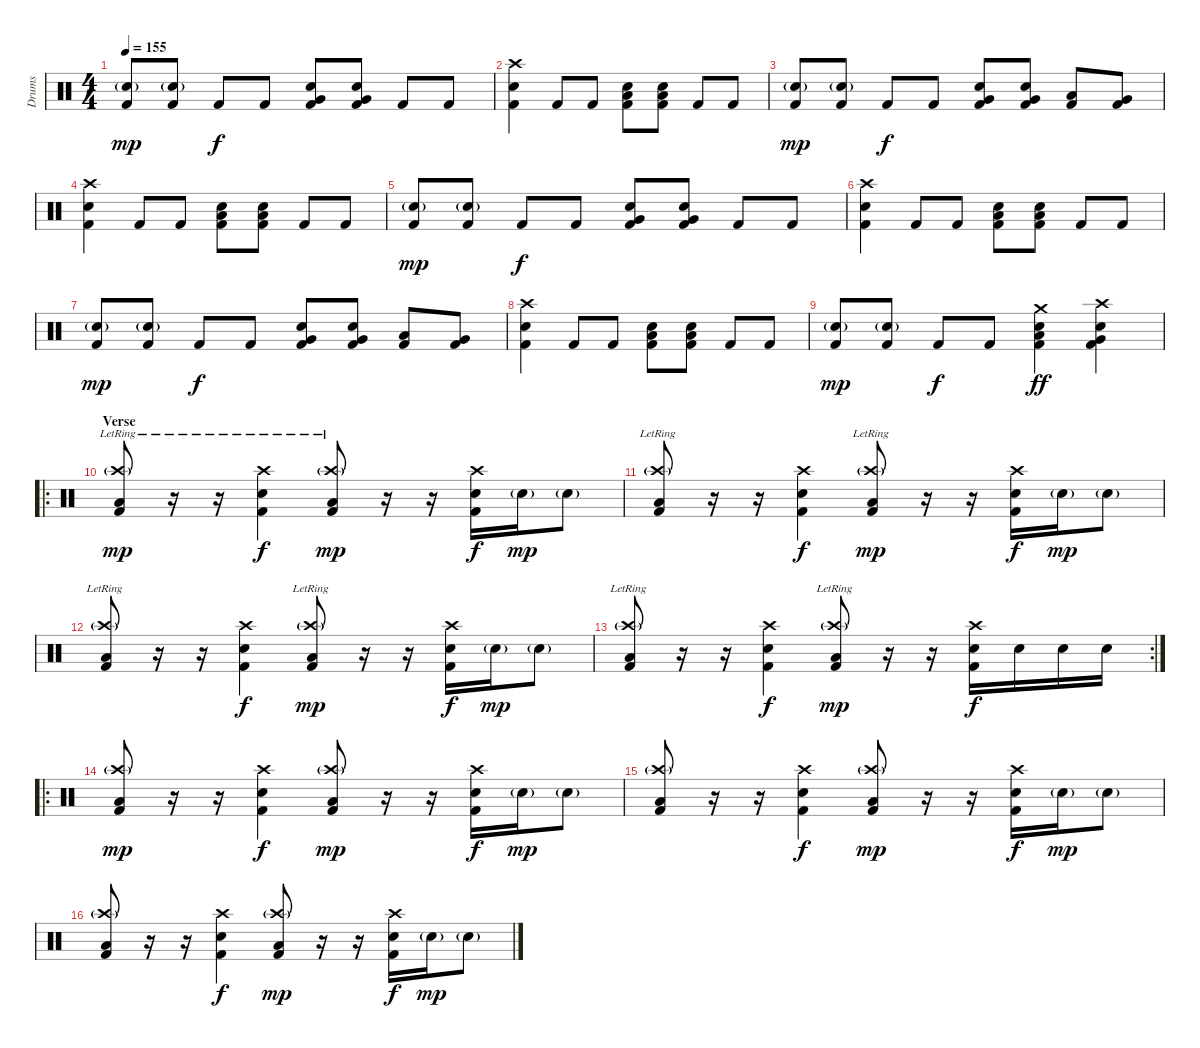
\track ("Drums" "Drums") {instrument percussion}
\staff {score}
\articulation defaults
\ts (4 4)
\tempo 155
\clef neutral
\ks c
("Electric Snare (hit)"{g} "Kick (hit) 2").8{dy mp} ("Electric Snare (hit)"{g} "Kick (hit) 2").8 "Kick (hit) 2".8{dy f} "Kick (hit) 2".8 ("Very Low Tom (hit)" "Electric Snare (hit)" "Kick (hit) 2").8 ("Very Low Tom (hit)" "Electric Snare (hit)" "Kick (hit) 2").8 "Kick (hit) 2".8 "Kick (hit) 2".8 |
("Crash high (hit)" "Electric Snare (hit)" "Kick (hit) 2").4 "Kick (hit) 2".8 "Kick (hit) 2".8 ("Low Tom (hit)" "Electric Snare (hit)" "Kick (hit) 2").8 ("Low Tom (hit)" "Electric Snare (hit)" "Kick (hit) 2").8 "Kick (hit) 2".8 "Kick (hit) 2".8 |
("Electric Snare (hit)"{g} "Kick (hit) 2").8{dy mp} ("Electric Snare (hit)"{g} "Kick (hit) 2").8 "Kick (hit) 2".8{dy f} "Kick (hit) 2".8 ("Very Low Tom (hit)" "Electric Snare (hit)" "Kick (hit) 2").8 ("Very Low Tom (hit)" "Electric Snare (hit)" "Kick (hit) 2").8 ("Low Tom (hit)" "Kick (hit) 2").8 ("Very Low Tom (hit)" "Kick (hit) 2").8 |
("Crash high (hit)" "Electric Snare (hit)" "Kick (hit) 2").4 "Kick (hit) 2".8 "Kick (hit) 2".8 ("Low Tom (hit)" "Electric Snare (hit)" "Kick (hit) 2").8 ("Low Tom (hit)" "Electric Snare (hit)" "Kick (hit) 2").8 "Kick (hit) 2".8 "Kick (hit) 2".8 |
("Electric Snare (hit)"{g} "Kick (hit) 2").8{dy mp} ("Electric Snare (hit)"{g} "Kick (hit) 2").8 "Kick (hit) 2".8{dy f} "Kick (hit) 2".8 ("Very Low Tom (hit)" "Electric Snare (hit)" "Kick (hit) 2").8 ("Very Low Tom (hit)" "Electric Snare (hit)" "Kick (hit) 2").8 "Kick (hit) 2".8 "Kick (hit) 2".8 |
("Crash high (hit)" "Electric Snare (hit)" "Kick (hit) 2").4 "Kick (hit) 2".8 "Kick (hit) 2".8 ("Low Tom (hit)" "Electric Snare (hit)" "Kick (hit) 2").8 ("Low Tom (hit)" "Electric Snare (hit)" "Kick (hit) 2").8 "Kick (hit) 2".8 "Kick (hit) 2".8 |
("Electric Snare (hit)"{g} "Kick (hit) 2").8{dy mp} ("Electric Snare (hit)"{g} "Kick (hit) 2").8 "Kick (hit) 2".8{dy f} "Kick (hit) 2".8 ("Very Low Tom (hit)" "Electric Snare (hit)" "Kick (hit) 2").8 ("Very Low Tom (hit)" "Electric Snare (hit)" "Kick (hit) 2").8 ("Low Tom (hit)" "Kick (hit) 2").8 ("Very Low Tom (hit)" "Kick (hit) 2").8 |
("Crash high (hit)" "Electric Snare (hit)" "Kick (hit) 2").4 "Kick (hit) 2".8 "Kick (hit) 2".8 ("Low Tom (hit)" "Electric Snare (hit)" "Kick (hit) 2").8 ("Low Tom (hit)" "Electric Snare (hit)" "Kick (hit) 2").8 "Kick (hit) 2".8 "Kick (hit) 2".8 |
("Electric Snare (hit)"{g} "Kick (hit) 2").8{dy mp} ("Electric Snare (hit)"{g} "Kick (hit) 2").8 "Kick (hit) 2".8{dy f} "Kick (hit) 2".8 ("Crash medium (hit)" "Low Tom (hit)" "Electric Snare (hit)" "Kick (hit) 2").4{dy ff} ("Crash high (hit)" "Very Low Tom (hit)" "Electric Snare (hit)" "Kick (hit) 2").4 |
\ro
\section ("" "Verse")
("Crash high (hit)"{g} "Low Tom (hit)"{lr} "Kick (hit) 2"{lr}).8{dy mp} r.16 r.16 ("Crash high (hit)" "Electric Snare (hit)"{lr} "Kick (hit) 2"{lr}).4{dy f} ("Crash high (hit)"{g} "Low Tom (hit)"{lr} "Kick (hit) 2"{lr}).8{dy mp} r.16 r.16 ("Crash high (hit)" "Electric Snare (hit)" "Kick (hit) 2").16{dy f} "Electric Snare (hit)"{g}.16{dy mp} "Electric Snare (hit)"{g}.8 |
("Crash high (hit)"{g} "Low Tom (hit)"{lr} "Kick (hit) 2").8 r.16 r.16 ("Crash high (hit)" "Electric Snare (hit)" "Kick (hit) 2").4{dy f} ("Crash high (hit)"{g} "Low Tom (hit)"{lr} "Kick (hit) 2").8{dy mp} r.16 r.16 ("Crash high (hit)" "Electric Snare (hit)" "Kick (hit) 2").16{dy f} "Electric Snare (hit)"{g}.16{dy mp} "Electric Snare (hit)"{g}.8 |
("Crash high (hit)"{g} "Low Tom (hit)"{lr} "Kick (hit) 2").8 r.16 r.16 ("Crash high (hit)" "Electric Snare (hit)" "Kick (hit) 2").4{dy f} ("Crash high (hit)"{g} "Low Tom (hit)"{lr} "Kick (hit) 2").8{dy mp} r.16 r.16 ("Crash high (hit)" "Electric Snare (hit)" "Kick (hit) 2").16{dy f} "Electric Snare (hit)"{g}.16{dy mp} "Electric Snare (hit)"{g}.8 |
\rc 2
("Crash high (hit)"{g} "Low Tom (hit)"{lr} "Kick (hit) 2").8 r.16 r.16 ("Crash high (hit)" "Electric Snare (hit)" "Kick (hit) 2").4{dy f} ("Crash high (hit)"{g} "Low Tom (hit)"{lr} "Kick (hit) 2").8{dy mp} r.16 r.16 ("Crash high (hit)" "Electric Snare (hit)" "Kick (hit) 2").16{dy f} "Electric Snare (hit)".16 "Electric Snare (hit)".16 "Electric Snare (hit)".16 |
\ro
("Crash high (hit)"{g} "Low Tom (hit)" "Kick (hit) 2").8{dy mp} r.16 r.16 ("Crash high (hit)" "Electric Snare (hit)" "Kick (hit) 2").4{dy f} ("Crash high (hit)"{g} "Low Tom (hit)" "Kick (hit) 2").8{dy mp} r.16 r.16 ("Crash high (hit)" "Electric Snare (hit)" "Kick (hit) 2").16{dy f} "Electric Snare (hit)"{g}.16{dy mp} "Electric Snare (hit)"{g}.8 |
("Crash high (hit)"{g} "Low Tom (hit)" "Kick (hit) 2").8 r.16 r.16 ("Crash high (hit)" "Electric Snare (hit)" "Kick (hit) 2").4{dy f} ("Crash high (hit)"{g} "Low Tom (hit)" "Kick (hit) 2").8{dy mp} r.16 r.16 ("Crash high (hit)" "Electric Snare (hit)" "Kick (hit) 2").16{dy f} "Electric Snare (hit)"{g}.16{dy mp} "Electric Snare (hit)"{g}.8 |
("Crash high (hit)"{g} "Low Tom (hit)" "Kick (hit) 2").8 r.16 r.16 ("Crash high (hit)" "Electric Snare (hit)" "Kick (hit) 2").4{dy f} ("Crash high (hit)"{g} "Low Tom (hit)" "Kick (hit) 2").8{dy mp} r.16 r.16 ("Crash high (hit)" "Electric Snare (hit)" "Kick (hit) 2").16{dy f} "Electric Snare (hit)"{g}.16{dy mp} "Electric Snare (hit)"{g}.8
